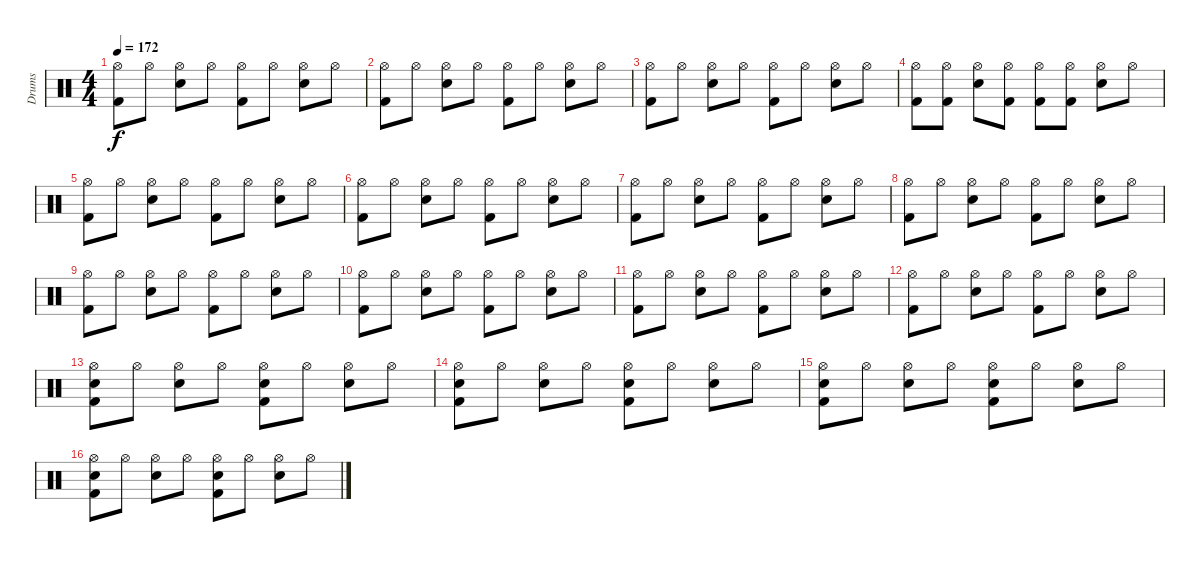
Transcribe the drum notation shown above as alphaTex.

\track ("Drums" "Drums") {instrument percussion}
\staff {score}
\articulation defaults
\ts (4 4)
\tempo 172
\clef neutral
\ks c
("Kick (hit) 2" "Hi-Hat (open)").8{dy f} "Hi-Hat (open)".8 ("Electric Snare (hit)" "Hi-Hat (open)").8 "Hi-Hat (open)".8 ("Kick (hit) 2" "Hi-Hat (open)").8 "Hi-Hat (open)".8 ("Electric Snare (hit)" "Hi-Hat (open)").8 "Hi-Hat (open)".8 |
("Kick (hit) 2" "Hi-Hat (open)").8 "Hi-Hat (open)".8 ("Electric Snare (hit)" "Hi-Hat (open)").8 "Hi-Hat (open)".8 ("Kick (hit) 2" "Hi-Hat (open)").8 "Hi-Hat (open)".8 ("Electric Snare (hit)" "Hi-Hat (open)").8 "Hi-Hat (open)".8 |
("Kick (hit) 2" "Hi-Hat (open)").8 "Hi-Hat (open)".8 ("Electric Snare (hit)" "Hi-Hat (open)").8 "Hi-Hat (open)".8 ("Kick (hit) 2" "Hi-Hat (open)").8 "Hi-Hat (open)".8 ("Electric Snare (hit)" "Hi-Hat (open)").8 "Hi-Hat (open)".8 |
("Kick (hit) 2" "Hi-Hat (open)").8 ("Kick (hit) 2" "Hi-Hat (open)").8 ("Electric Snare (hit)" "Hi-Hat (open)").8 ("Kick (hit) 2" "Hi-Hat (open)").8 ("Kick (hit) 2" "Hi-Hat (open)").8 ("Kick (hit) 2" "Hi-Hat (open)").8 ("Electric Snare (hit)" "Hi-Hat (open)").8 "Hi-Hat (open)".8 |
("Kick (hit) 2" "Hi-Hat (open)").8 "Hi-Hat (open)".8 ("Electric Snare (hit)" "Hi-Hat (open)").8 "Hi-Hat (open)".8 ("Kick (hit) 2" "Hi-Hat (open)").8 "Hi-Hat (open)".8 ("Electric Snare (hit)" "Hi-Hat (open)").8 "Hi-Hat (open)".8 |
("Kick (hit) 2" "Hi-Hat (open)").8 "Hi-Hat (open)".8 ("Electric Snare (hit)" "Hi-Hat (open)").8 "Hi-Hat (open)".8 ("Kick (hit) 2" "Hi-Hat (open)").8 "Hi-Hat (open)".8 ("Electric Snare (hit)" "Hi-Hat (open)").8 "Hi-Hat (open)".8 |
("Kick (hit) 2" "Hi-Hat (open)").8 "Hi-Hat (open)".8 ("Electric Snare (hit)" "Hi-Hat (open)").8 "Hi-Hat (open)".8 ("Kick (hit) 2" "Hi-Hat (open)").8 "Hi-Hat (open)".8 ("Electric Snare (hit)" "Hi-Hat (open)").8 "Hi-Hat (open)".8 |
("Kick (hit) 2" "Hi-Hat (open)").8 "Hi-Hat (open)".8 ("Electric Snare (hit)" "Hi-Hat (open)").8 "Hi-Hat (open)".8 ("Kick (hit) 2" "Hi-Hat (open)").8 "Hi-Hat (open)".8 ("Electric Snare (hit)" "Hi-Hat (open)").8 "Hi-Hat (open)".8 |
("Kick (hit) 2" "Hi-Hat (open)").8 "Hi-Hat (open)".8 ("Electric Snare (hit)" "Hi-Hat (open)").8 "Hi-Hat (open)".8 ("Kick (hit) 2" "Hi-Hat (open)").8 "Hi-Hat (open)".8 ("Electric Snare (hit)" "Hi-Hat (open)").8 "Hi-Hat (open)".8 |
("Kick (hit) 2" "Hi-Hat (open)").8 "Hi-Hat (open)".8 ("Electric Snare (hit)" "Hi-Hat (open)").8 "Hi-Hat (open)".8 ("Kick (hit) 2" "Hi-Hat (open)").8 "Hi-Hat (open)".8 ("Electric Snare (hit)" "Hi-Hat (open)").8 "Hi-Hat (open)".8 |
("Kick (hit) 2" "Hi-Hat (open)").8 "Hi-Hat (open)".8 ("Electric Snare (hit)" "Hi-Hat (open)").8 "Hi-Hat (open)".8 ("Kick (hit) 2" "Hi-Hat (open)").8 "Hi-Hat (open)".8 ("Electric Snare (hit)" "Hi-Hat (open)").8 "Hi-Hat (open)".8 |
("Kick (hit) 2" "Hi-Hat (open)").8 "Hi-Hat (open)".8 ("Electric Snare (hit)" "Hi-Hat (open)").8 "Hi-Hat (open)".8 ("Kick (hit) 2" "Hi-Hat (open)").8 "Hi-Hat (open)".8 ("Electric Snare (hit)" "Hi-Hat (open)").8 "Hi-Hat (open)".8 |
("Kick (hit) 2" "Electric Snare (hit)" "Hi-Hat (open)").8 "Hi-Hat (open)".8 ("Electric Snare (hit)" "Hi-Hat (open)").8 "Hi-Hat (open)".8 ("Kick (hit) 2" "Electric Snare (hit)" "Hi-Hat (open)").8 "Hi-Hat (open)".8 ("Electric Snare (hit)" "Hi-Hat (open)").8 "Hi-Hat (open)".8 |
("Kick (hit) 2" "Electric Snare (hit)" "Hi-Hat (open)").8 "Hi-Hat (open)".8 ("Electric Snare (hit)" "Hi-Hat (open)").8 "Hi-Hat (open)".8 ("Kick (hit) 2" "Electric Snare (hit)" "Hi-Hat (open)").8 "Hi-Hat (open)".8 ("Electric Snare (hit)" "Hi-Hat (open)").8 "Hi-Hat (open)".8 |
("Kick (hit) 2" "Electric Snare (hit)" "Hi-Hat (open)").8 "Hi-Hat (open)".8 ("Electric Snare (hit)" "Hi-Hat (open)").8 "Hi-Hat (open)".8 ("Kick (hit) 2" "Electric Snare (hit)" "Hi-Hat (open)").8 "Hi-Hat (open)".8 ("Electric Snare (hit)" "Hi-Hat (open)").8 "Hi-Hat (open)".8 |
("Kick (hit) 2" "Electric Snare (hit)" "Hi-Hat (open)").8 "Hi-Hat (open)".8 ("Electric Snare (hit)" "Hi-Hat (open)").8 "Hi-Hat (open)".8 ("Kick (hit) 2" "Electric Snare (hit)" "Hi-Hat (open)").8 "Hi-Hat (open)".8 ("Electric Snare (hit)" "Hi-Hat (open)").8 "Hi-Hat (open)".8
